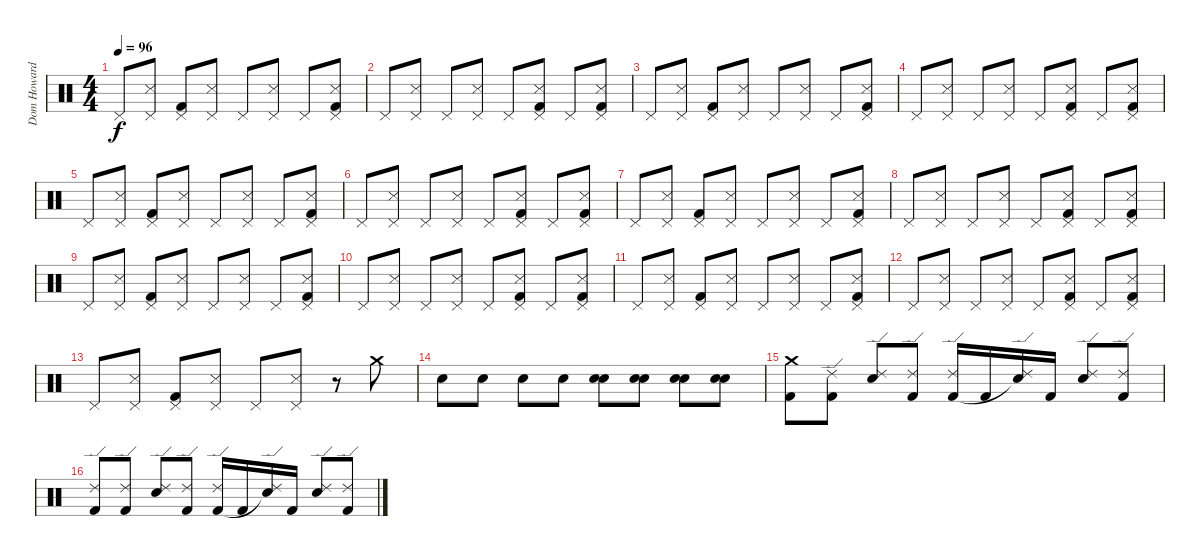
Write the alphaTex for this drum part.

\track ("Dom Howard" "Dom Howard") {instrument percussion}
\staff {score}
\articulation defaults
\ts (4 4)
\tempo 96
\clef neutral
\ks c "Pedal Hi-Hat (hit)".8{dy f}
("Pedal Hi-Hat (hit)" "Snare (side stick) 3").8 ("Pedal Hi-Hat (hit)" "Kick (hit) 2").8 ("Pedal Hi-Hat (hit)" "Snare (side stick) 3").8 "Pedal Hi-Hat (hit)".8 ("Pedal Hi-Hat (hit)" "Snare (side stick) 3").8 "Pedal Hi-Hat (hit)".8 ("Pedal Hi-Hat (hit)" "Snare (side stick) 3" "Kick (hit) 2").8 |
"Pedal Hi-Hat (hit)".8 ("Pedal Hi-Hat (hit)" "Snare (side stick) 3").8 "Pedal Hi-Hat (hit)".8 ("Pedal Hi-Hat (hit)" "Snare (side stick) 3").8 "Pedal Hi-Hat (hit)".8 ("Pedal Hi-Hat (hit)" "Snare (side stick) 3" "Kick (hit) 2").8 "Pedal Hi-Hat (hit)".8 ("Pedal Hi-Hat (hit)" "Snare (side stick) 3" "Kick (hit) 2").8 |
"Pedal Hi-Hat (hit)".8 ("Pedal Hi-Hat (hit)" "Snare (side stick) 3").8 ("Pedal Hi-Hat (hit)" "Kick (hit) 2").8 ("Pedal Hi-Hat (hit)" "Snare (side stick) 3").8 "Pedal Hi-Hat (hit)".8 ("Pedal Hi-Hat (hit)" "Snare (side stick) 3").8 "Pedal Hi-Hat (hit)".8 ("Pedal Hi-Hat (hit)" "Snare (side stick) 3" "Kick (hit) 2").8 |
"Pedal Hi-Hat (hit)".8 ("Pedal Hi-Hat (hit)" "Snare (side stick) 3").8 "Pedal Hi-Hat (hit)".8 ("Pedal Hi-Hat (hit)" "Snare (side stick) 3").8 "Pedal Hi-Hat (hit)".8 ("Pedal Hi-Hat (hit)" "Snare (side stick) 3" "Kick (hit) 2").8 "Pedal Hi-Hat (hit)".8 ("Pedal Hi-Hat (hit)" "Snare (side stick) 3" "Kick (hit) 2").8 |
"Pedal Hi-Hat (hit)".8 ("Pedal Hi-Hat (hit)" "Snare (side stick) 3").8 ("Pedal Hi-Hat (hit)" "Kick (hit) 2").8 ("Pedal Hi-Hat (hit)" "Snare (side stick) 3").8 "Pedal Hi-Hat (hit)".8 ("Pedal Hi-Hat (hit)" "Snare (side stick) 3").8 "Pedal Hi-Hat (hit)".8 ("Pedal Hi-Hat (hit)" "Snare (side stick) 3" "Kick (hit) 2").8 |
"Pedal Hi-Hat (hit)".8 ("Pedal Hi-Hat (hit)" "Snare (side stick) 3").8 "Pedal Hi-Hat (hit)".8 ("Pedal Hi-Hat (hit)" "Snare (side stick) 3").8 "Pedal Hi-Hat (hit)".8 ("Pedal Hi-Hat (hit)" "Snare (side stick) 3" "Kick (hit) 2").8 "Pedal Hi-Hat (hit)".8 ("Pedal Hi-Hat (hit)" "Snare (side stick) 3" "Kick (hit) 2").8 |
"Pedal Hi-Hat (hit)".8 ("Pedal Hi-Hat (hit)" "Snare (side stick) 3").8 ("Pedal Hi-Hat (hit)" "Kick (hit) 2").8 ("Pedal Hi-Hat (hit)" "Snare (side stick) 3").8 "Pedal Hi-Hat (hit)".8 ("Pedal Hi-Hat (hit)" "Snare (side stick) 3").8 "Pedal Hi-Hat (hit)".8 ("Pedal Hi-Hat (hit)" "Snare (side stick) 3" "Kick (hit) 2").8 |
"Pedal Hi-Hat (hit)".8 ("Pedal Hi-Hat (hit)" "Snare (side stick) 3").8 "Pedal Hi-Hat (hit)".8 ("Pedal Hi-Hat (hit)" "Snare (side stick) 3").8 "Pedal Hi-Hat (hit)".8 ("Pedal Hi-Hat (hit)" "Snare (side stick) 3" "Kick (hit) 2").8 "Pedal Hi-Hat (hit)".8 ("Pedal Hi-Hat (hit)" "Snare (side stick) 3" "Kick (hit) 2").8 |
"Pedal Hi-Hat (hit)".8 ("Pedal Hi-Hat (hit)" "Snare (side stick) 3").8 ("Pedal Hi-Hat (hit)" "Kick (hit) 2").8 ("Pedal Hi-Hat (hit)" "Snare (side stick) 3").8 "Pedal Hi-Hat (hit)".8 ("Pedal Hi-Hat (hit)" "Snare (side stick) 3").8 "Pedal Hi-Hat (hit)".8 ("Pedal Hi-Hat (hit)" "Snare (side stick) 3" "Kick (hit) 2").8 |
"Pedal Hi-Hat (hit)".8 ("Pedal Hi-Hat (hit)" "Snare (side stick) 3").8 "Pedal Hi-Hat (hit)".8 ("Pedal Hi-Hat (hit)" "Snare (side stick) 3").8 "Pedal Hi-Hat (hit)".8 ("Pedal Hi-Hat (hit)" "Snare (side stick) 3" "Kick (hit) 2").8 "Pedal Hi-Hat (hit)".8 ("Pedal Hi-Hat (hit)" "Snare (side stick) 3" "Kick (hit) 2").8 |
"Pedal Hi-Hat (hit)".8 ("Pedal Hi-Hat (hit)" "Snare (side stick) 3").8 ("Pedal Hi-Hat (hit)" "Kick (hit) 2").8 ("Pedal Hi-Hat (hit)" "Snare (side stick) 3").8 "Pedal Hi-Hat (hit)".8 ("Pedal Hi-Hat (hit)" "Snare (side stick) 3").8 "Pedal Hi-Hat (hit)".8 ("Pedal Hi-Hat (hit)" "Snare (side stick) 3" "Kick (hit) 2").8 |
"Pedal Hi-Hat (hit)".8 ("Pedal Hi-Hat (hit)" "Snare (side stick) 3").8 "Pedal Hi-Hat (hit)".8 ("Pedal Hi-Hat (hit)" "Snare (side stick) 3").8 "Pedal Hi-Hat (hit)".8 ("Pedal Hi-Hat (hit)" "Snare (side stick) 3" "Kick (hit) 2").8 "Pedal Hi-Hat (hit)".8 ("Pedal Hi-Hat (hit)" "Snare (side stick) 3" "Kick (hit) 2").8 |
"Pedal Hi-Hat (hit)".8 ("Pedal Hi-Hat (hit)" "Snare (side stick) 3").8 ("Pedal Hi-Hat (hit)" "Kick (hit) 2").8 ("Pedal Hi-Hat (hit)" "Snare (side stick) 3").8 "Pedal Hi-Hat (hit)".8 ("Pedal Hi-Hat (hit)" "Snare (side stick) 3").8 r.8 "Crash medium (hit)".8{volume 7} |
"Snare (hit) 2".8{volume 16} "Snare (hit) 2".8 "Snare (hit) 2".8 "Snare (hit) 2".8 ("Snare (hit) 2" "Electric Snare (hit)").8 ("Snare (hit) 2" "Electric Snare (hit)").8 ("Snare (hit) 2" "Electric Snare (hit)").8 ("Snare (hit) 2" "Electric Snare (hit)").8 |
("Crash medium (hit)" "Kick (hit) 2").8 ("Ride (edge) 2" "Kick (hit) 2").8 ("Ride (edge) 2" "Electric Snare (hit)").8 ("Ride (edge) 2" "Kick (hit) 2").8 ("Ride (edge) 2" "Kick (hit) 2").16 "Kick (hit) 2".16 ("Ride (edge) 2" "Snare (hit)"{t}).16 "Kick (hit) 2".16 ("Ride (edge) 2" "Electric Snare (hit)").8 ("Ride (edge) 2" "Kick (hit) 2").8 |
("Ride (edge) 2" "Kick (hit) 2").8 ("Ride (edge) 2" "Kick (hit) 2").8 ("Ride (edge) 2" "Electric Snare (hit)").8 ("Ride (edge) 2" "Kick (hit) 2").8 ("Ride (edge) 2" "Kick (hit) 2").16 "Kick (hit) 2".16 ("Ride (edge) 2" "Snare (hit)"{t}).16 "Kick (hit) 2".16 ("Ride (edge) 2" "Electric Snare (hit)").8 ("Ride (edge) 2" "Kick (hit) 2").8
